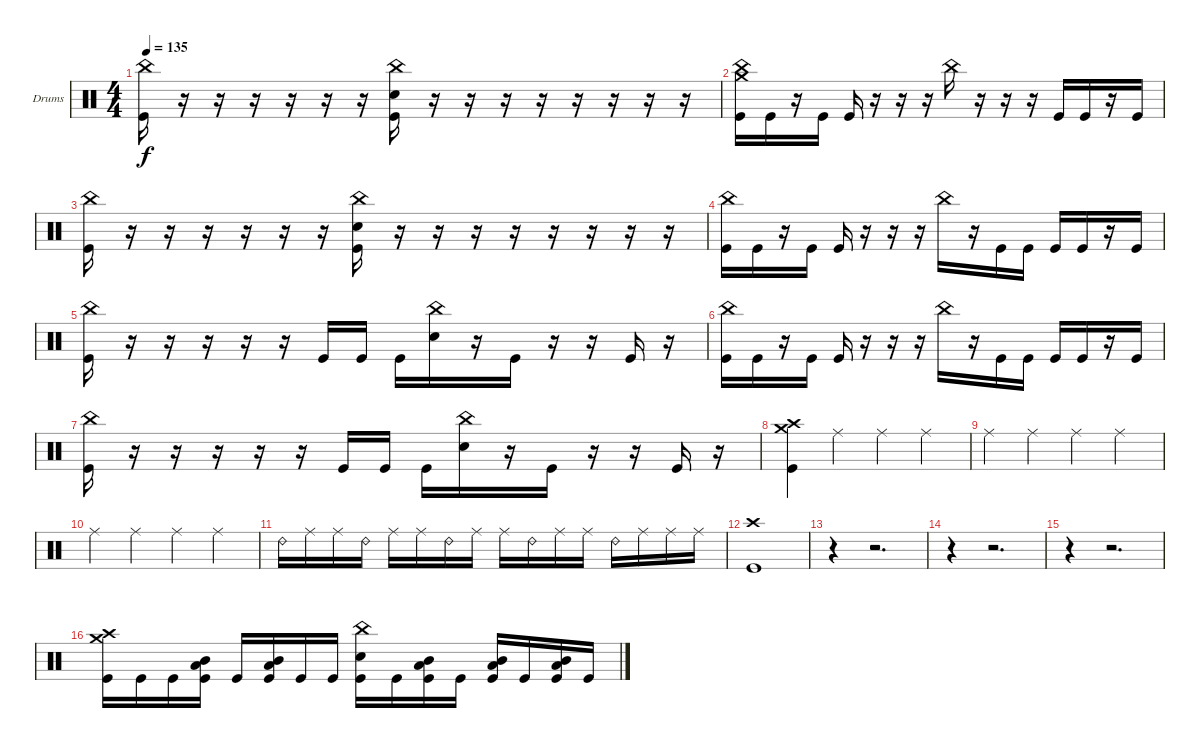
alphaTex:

\bracketExtendMode groupsimilarinstruments
\firstSystemTrackNameOrientation horizontal
\otherSystemsTrackNameOrientation horizontal
\track ("Drumkit" "Drums") {instrument percussion}
\staff {score}
\articulation defaults
\ts (4 4)
\tempo 135
\clef neutral
\ks c
("China (hit)" "Kick (hit)").16{dy f} r.16 r.16 r.16 r.16 r.16 r.16 ("China (hit)" "Snare (hit) 2" "Kick (hit)").16 r.16 r.16 r.16 r.16 r.16 r.16 r.16 r.16 |
("China (hit)" "Crash medium (hit)" "Kick (hit)").16 "Kick (hit)".16 r.16 "Kick (hit)".16 "Kick (hit)".16 r.16 r.16 r.16 "China (hit)".16 r.16 r.16 r.16 "Kick (hit)".16 "Kick (hit)".16 r.16 "Kick (hit)".16 |
("China (hit)" "Kick (hit)").16 r.16 r.16 r.16 r.16 r.16 r.16 ("China (hit)" "Snare (hit) 2" "Kick (hit)").16 r.16 r.16 r.16 r.16 r.16 r.16 r.16 r.16 |
("China (hit)" "Kick (hit)").16 "Kick (hit)".16 r.16 "Kick (hit)".16 "Kick (hit)".16 r.16 r.16 r.16 "China (hit)".16 r.16 "Kick (hit)".16 "Kick (hit)".16 "Kick (hit)".16 "Kick (hit)".16 r.16 "Kick (hit)".16 |
("China (hit)" "Kick (hit)").16 r.16 r.16 r.16 r.16 r.16 "Kick (hit)".16 "Kick (hit)".16 "Kick (hit)".16 ("China (hit)" "Snare (hit) 2").16 r.16 "Kick (hit)".16 r.16 r.16 "Kick (hit)".16 r.16 |
("China (hit)" "Kick (hit)").16 "Kick (hit)".16 r.16 "Kick (hit)".16 "Kick (hit)".16 r.16 r.16 r.16 "China (hit)".16 r.16 "Kick (hit)".16 "Kick (hit)".16 "Kick (hit)".16 "Kick (hit)".16 r.16 "Kick (hit)".16 |
("China (hit)" "Kick (hit)").16 r.16 r.16 r.16 r.16 r.16 "Kick (hit)".16 "Kick (hit)".16 "Kick (hit)".16 ("China (hit)" "Snare (hit) 2").16 r.16 "Kick (hit)".16 r.16 r.16 "Kick (hit)".16 r.16 |
("Crash medium (hit)" "Crash high (hit)" "Kick (hit)").4 "Ride (middle)".4 "Ride (middle)".4 "Ride (middle)".4 |
"Ride (middle)".4 "Ride (middle)".4 "Ride (middle)".4 "Ride (middle)".4 |
"Ride (middle)".4 "Ride (middle)".4 "Ride (middle)".4 "Ride (middle)".4 |
"Ride (bell) 2".16 "Ride (middle)".16 "Ride (middle)".16 "Ride (bell) 2".16 "Ride (middle)".16 "Ride (middle)".16 "Ride (bell) 2".16 "Ride (middle)".16 "Ride (middle)".16 "Ride (bell) 2".16 "Ride (middle)".16 "Ride (middle)".16 "Ride (bell) 2".16 "Ride (middle)".16 "Ride (middle)".16 "Ride (middle)".16 |
("Crash high (hit)" "Kick (hit)").1 |
r.4 r.2{d} |
r.4 r.2{d} |
r.4 r.2{d} |
("Crash high (hit)" "Crash medium (hit)" "Kick (hit)").16 "Kick (hit)".16 "Kick (hit)".16 ("Mid Tom (hit)" "Low Tom (hit)" "Kick (hit)").16 "Kick (hit)".16 ("Mid Tom (hit)" "Low Tom (hit)" "Kick (hit)").16 "Kick (hit)".16 "Kick (hit)".16 ("China (hit)" "Snare (hit) 2" "Kick (hit)").16 "Kick (hit)".16 ("Mid Tom (hit)" "Low Tom (hit)" "Kick (hit)").16 "Kick (hit)".16 ("Mid Tom (hit)" "Low Tom (hit)" "Kick (hit)").16 "Kick (hit)".16 ("Mid Tom (hit)" "Low Tom (hit)" "Kick (hit)").16 "Kick (hit)".16
